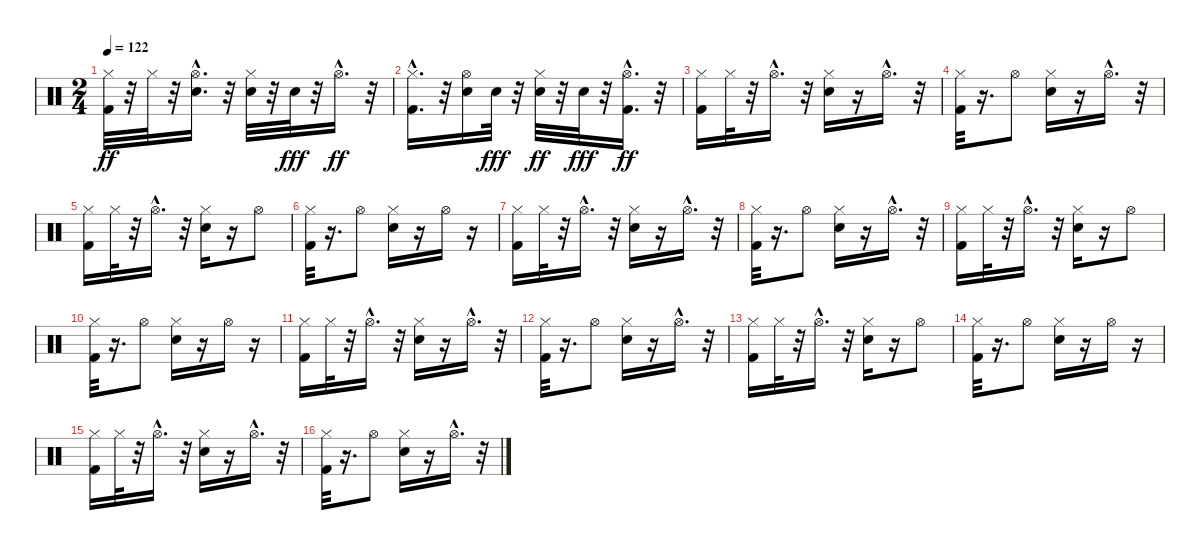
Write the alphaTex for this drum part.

\track "" {instrument percussion}
\staff {score}
\articulation defaults
\ts (2 4)
\tempo 122
\clef neutral
\ks c
("Kick (hit) 2" "Hi-Hat (closed)").32{dy ff} r.32 "Hi-Hat (closed)".32 r.32 ("Snare (hit) 2" "Hi-Hat (open)"{hac}).16{d} r.32 ("Snare (hit) 2" "Hi-Hat (closed)").32 r.32 "Snare (hit) 2".32{dy fff} r.32 "Hi-Hat (open)"{hac}.16{d dy ff} r.32 |
("Kick (hit) 2"{hac} "Hi-Hat (closed)").16{d} r.32 ("Snare (hit) 2" "Hi-Hat (open)").16 "Snare (hit) 2".32{dy fff} r.32 ("Snare (hit) 2" "Hi-Hat (closed)").32{dy ff} r.32 "Snare (hit) 2".32{dy fff} r.32 ("Kick (hit) 2" "Hi-Hat (open)"{hac}).16{d dy ff} r.32 |
("Kick (hit) 2" "Hi-Hat (closed)").16 "Hi-Hat (closed)".32 r.32 "Hi-Hat (open)"{hac}.16{d} r.32 ("Snare (hit) 2" "Hi-Hat (closed)").16 r.16 "Hi-Hat (open)"{hac}.16{d} r.32 |
("Kick (hit) 2" "Hi-Hat (closed)").32 r.16{d} "Hi-Hat (open)".8 ("Snare (hit) 2" "Hi-Hat (closed)").16 r.16 "Hi-Hat (open)"{hac}.16{d} r.32 |
("Kick (hit) 2" "Hi-Hat (closed)").16 "Hi-Hat (closed)".32 r.32 "Hi-Hat (open)"{hac}.16{d} r.32 ("Snare (hit) 2" "Hi-Hat (closed)").16 r.16 "Hi-Hat (open)".8 |
("Kick (hit) 2" "Hi-Hat (closed)").32 r.16{d} "Hi-Hat (open)".8 ("Snare (hit) 2" "Hi-Hat (closed)").16 r.16 "Hi-Hat (open)".16 r.16 |
("Kick (hit) 2" "Hi-Hat (closed)").16 "Hi-Hat (closed)".32 r.32 "Hi-Hat (open)"{hac}.16{d} r.32 ("Snare (hit) 2" "Hi-Hat (closed)").16 r.16 "Hi-Hat (open)"{hac}.16{d} r.32 |
("Kick (hit) 2" "Hi-Hat (closed)").32 r.16{d} "Hi-Hat (open)".8 ("Snare (hit) 2" "Hi-Hat (closed)").16 r.16 "Hi-Hat (open)"{hac}.16{d} r.32 |
("Kick (hit) 2" "Hi-Hat (closed)").16 "Hi-Hat (closed)".32 r.32 "Hi-Hat (open)"{hac}.16{d} r.32 ("Snare (hit) 2" "Hi-Hat (closed)").16 r.16 "Hi-Hat (open)".8 |
("Kick (hit) 2" "Hi-Hat (closed)").32 r.16{d} "Hi-Hat (open)".8 ("Snare (hit) 2" "Hi-Hat (closed)").16 r.16 "Hi-Hat (open)".16 r.16 |
("Kick (hit) 2" "Hi-Hat (closed)").16 "Hi-Hat (closed)".32 r.32 "Hi-Hat (open)"{hac}.16{d} r.32 ("Snare (hit) 2" "Hi-Hat (closed)").16 r.16 "Hi-Hat (open)"{hac}.16{d} r.32 |
("Kick (hit) 2" "Hi-Hat (closed)").32 r.16{d} "Hi-Hat (open)".8 ("Snare (hit) 2" "Hi-Hat (closed)").16 r.16 "Hi-Hat (open)"{hac}.16{d} r.32 |
("Kick (hit) 2" "Hi-Hat (closed)").16 "Hi-Hat (closed)".32 r.32 "Hi-Hat (open)"{hac}.16{d} r.32 ("Snare (hit) 2" "Hi-Hat (closed)").16 r.16 "Hi-Hat (open)".8 |
("Kick (hit) 2" "Hi-Hat (closed)").32 r.16{d} "Hi-Hat (open)".8 ("Snare (hit) 2" "Hi-Hat (closed)").16 r.16 "Hi-Hat (open)".16 r.16 |
("Kick (hit) 2" "Hi-Hat (closed)").16 "Hi-Hat (closed)".32 r.32 "Hi-Hat (open)"{hac}.16{d} r.32 ("Snare (hit) 2" "Hi-Hat (closed)").16 r.16 "Hi-Hat (open)"{hac}.16{d} r.32 |
("Kick (hit) 2" "Hi-Hat (closed)").32 r.16{d} "Hi-Hat (open)".8 ("Snare (hit) 2" "Hi-Hat (closed)").16 r.16 "Hi-Hat (open)"{hac}.16{d} r.32
